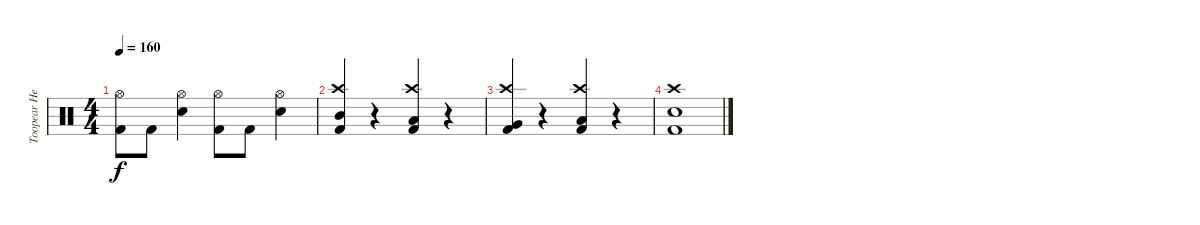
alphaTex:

\track ("Toopear Headon" "Toopear He") {instrument percussion}
\staff {score}
\articulation defaults
\ts (4 4)
\tempo 160
\clef neutral
\ks c
("Hi-Hat (open)" "Kick (hit) 2").8{dy f} "Kick (hit) 2".8 ("Hi-Hat (open)" "Electric Snare (hit)").4 ("Hi-Hat (open)" "Kick (hit) 2").8 "Kick (hit) 2".8 ("Hi-Hat (open)" "Electric Snare (hit)").4 |
("Crash high (hit)" "Mid Tom (hit)" "Kick (hit) 2").4 r.4 ("Crash high (hit)" "Low Tom (hit)" "Kick (hit) 2").4 r.4 |
("Crash high (hit)" "Very Low Tom (hit)" "Kick (hit) 2").4 r.4 ("Crash high (hit)" "Low Floor Tom (hit)" "Kick (hit) 2").4 r.4 |
("Crash high (hit)" "Electric Snare (hit)" "Kick (hit) 2").1
